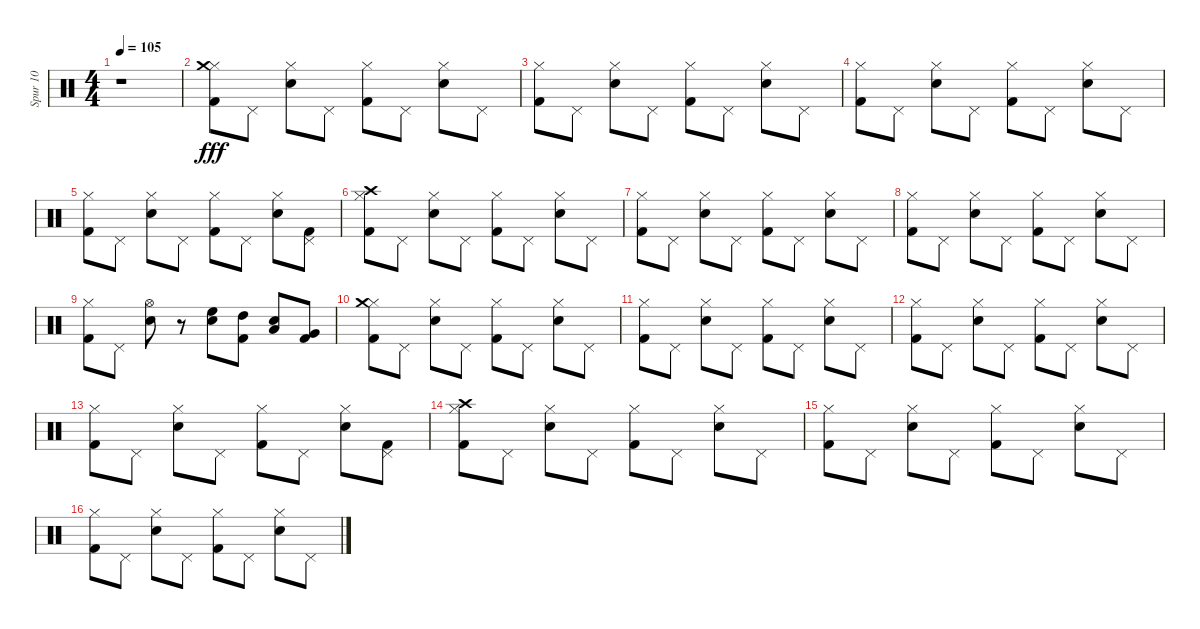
\track ("Spur 10" "Spur 10") {instrument percussion}
\staff {score}
\articulation defaults
\ts (4 4)
\tempo 105
\clef neutral
\ks c
r.1{dy fff} |
("Hi-Hat (closed)" "Crash medium (hit)" "Kick (hit) 2").8 "Pedal Hi-Hat (hit)".8 ("Hi-Hat (closed)" "Electric Snare (hit)").8 "Pedal Hi-Hat (hit)".8 ("Hi-Hat (closed)" "Kick (hit) 2").8 "Pedal Hi-Hat (hit)".8 ("Electric Snare (hit)" "Hi-Hat (closed)").8 "Pedal Hi-Hat (hit)".8 |
("Kick (hit) 2" "Hi-Hat (closed)").8 "Pedal Hi-Hat (hit)".8 ("Electric Snare (hit)" "Hi-Hat (closed)").8 "Pedal Hi-Hat (hit)".8 ("Hi-Hat (closed)" "Kick (hit) 2").8 "Pedal Hi-Hat (hit)".8 ("Electric Snare (hit)" "Hi-Hat (closed)").8 "Pedal Hi-Hat (hit)".8 |
("Kick (hit) 2" "Hi-Hat (closed)").8 "Pedal Hi-Hat (hit)".8 ("Electric Snare (hit)" "Hi-Hat (closed)").8 "Pedal Hi-Hat (hit)".8 ("Kick (hit) 2" "Hi-Hat (closed)").8 "Pedal Hi-Hat (hit)".8 ("Electric Snare (hit)" "Hi-Hat (closed)").8 "Pedal Hi-Hat (hit)".8 |
("Kick (hit) 2" "Hi-Hat (closed)").8 "Pedal Hi-Hat (hit)".8 ("Electric Snare (hit)" "Hi-Hat (closed)").8 "Pedal Hi-Hat (hit)".8 ("Hi-Hat (closed)" "Kick (hit) 2").8 "Pedal Hi-Hat (hit)".8 ("Electric Snare (hit)" "Hi-Hat (closed)").8 ("Pedal Hi-Hat (hit)" "Kick (hit) 2").8 |
("Hi-Hat (closed)" "Crash high (hit)" "Kick (hit) 2").8 "Pedal Hi-Hat (hit)".8 ("Hi-Hat (closed)" "Electric Snare (hit)").8 "Pedal Hi-Hat (hit)".8 ("Hi-Hat (closed)" "Kick (hit) 2").8 "Pedal Hi-Hat (hit)".8 ("Electric Snare (hit)" "Hi-Hat (closed)").8 "Pedal Hi-Hat (hit)".8 |
("Kick (hit) 2" "Hi-Hat (closed)").8 "Pedal Hi-Hat (hit)".8 ("Electric Snare (hit)" "Hi-Hat (closed)").8 "Pedal Hi-Hat (hit)".8 ("Hi-Hat (closed)" "Kick (hit) 2").8 "Pedal Hi-Hat (hit)".8 ("Electric Snare (hit)" "Hi-Hat (closed)").8 "Pedal Hi-Hat (hit)".8 |
("Kick (hit) 2" "Hi-Hat (closed)").8 "Pedal Hi-Hat (hit)".8 ("Electric Snare (hit)" "Hi-Hat (closed)").8 "Pedal Hi-Hat (hit)".8 ("Kick (hit) 2" "Hi-Hat (closed)").8 "Pedal Hi-Hat (hit)".8 ("Electric Snare (hit)" "Hi-Hat (closed)").8 "Pedal Hi-Hat (hit)".8 |
("Kick (hit) 2" "Hi-Hat (closed)").8 "Pedal Hi-Hat (hit)".8 ("Electric Snare (hit)" "Hi-Hat (open)").8 r.8 ("Electric Snare (hit)" "High Floor Tom (hit)").8 ("Kick (hit) 2" "High Tom (hit)").8 ("Electric Snare (hit)" "Low Tom (hit)").8 ("Very Low Tom (hit)" "Kick (hit) 2").8 |
("Hi-Hat (closed)" "Crash medium (hit)" "Kick (hit) 2").8 "Pedal Hi-Hat (hit)".8 ("Hi-Hat (closed)" "Electric Snare (hit)").8 "Pedal Hi-Hat (hit)".8 ("Hi-Hat (closed)" "Kick (hit) 2").8 "Pedal Hi-Hat (hit)".8 ("Electric Snare (hit)" "Hi-Hat (closed)").8 "Pedal Hi-Hat (hit)".8 |
("Kick (hit) 2" "Hi-Hat (closed)").8 "Pedal Hi-Hat (hit)".8 ("Electric Snare (hit)" "Hi-Hat (closed)").8 "Pedal Hi-Hat (hit)".8 ("Hi-Hat (closed)" "Kick (hit) 2").8 "Pedal Hi-Hat (hit)".8 ("Electric Snare (hit)" "Hi-Hat (closed)").8 "Pedal Hi-Hat (hit)".8 |
("Kick (hit) 2" "Hi-Hat (closed)").8 "Pedal Hi-Hat (hit)".8 ("Electric Snare (hit)" "Hi-Hat (closed)").8 "Pedal Hi-Hat (hit)".8 ("Kick (hit) 2" "Hi-Hat (closed)").8 "Pedal Hi-Hat (hit)".8 ("Electric Snare (hit)" "Hi-Hat (closed)").8 "Pedal Hi-Hat (hit)".8 |
("Kick (hit) 2" "Hi-Hat (closed)").8 "Pedal Hi-Hat (hit)".8 ("Electric Snare (hit)" "Hi-Hat (closed)").8 "Pedal Hi-Hat (hit)".8 ("Hi-Hat (closed)" "Kick (hit) 2").8 "Pedal Hi-Hat (hit)".8 ("Electric Snare (hit)" "Hi-Hat (closed)").8 ("Pedal Hi-Hat (hit)" "Kick (hit) 2").8 |
("Hi-Hat (closed)" "Crash high (hit)" "Kick (hit) 2").8 "Pedal Hi-Hat (hit)".8 ("Hi-Hat (closed)" "Electric Snare (hit)").8 "Pedal Hi-Hat (hit)".8 ("Hi-Hat (closed)" "Kick (hit) 2").8 "Pedal Hi-Hat (hit)".8 ("Electric Snare (hit)" "Hi-Hat (closed)").8 "Pedal Hi-Hat (hit)".8 |
("Kick (hit) 2" "Hi-Hat (closed)").8 "Pedal Hi-Hat (hit)".8 ("Electric Snare (hit)" "Hi-Hat (closed)").8 "Pedal Hi-Hat (hit)".8 ("Hi-Hat (closed)" "Kick (hit) 2").8 "Pedal Hi-Hat (hit)".8 ("Electric Snare (hit)" "Hi-Hat (closed)").8 "Pedal Hi-Hat (hit)".8 |
("Kick (hit) 2" "Hi-Hat (closed)").8 "Pedal Hi-Hat (hit)".8 ("Electric Snare (hit)" "Hi-Hat (closed)").8 "Pedal Hi-Hat (hit)".8 ("Kick (hit) 2" "Hi-Hat (closed)").8 "Pedal Hi-Hat (hit)".8 ("Electric Snare (hit)" "Hi-Hat (closed)").8 "Pedal Hi-Hat (hit)".8
